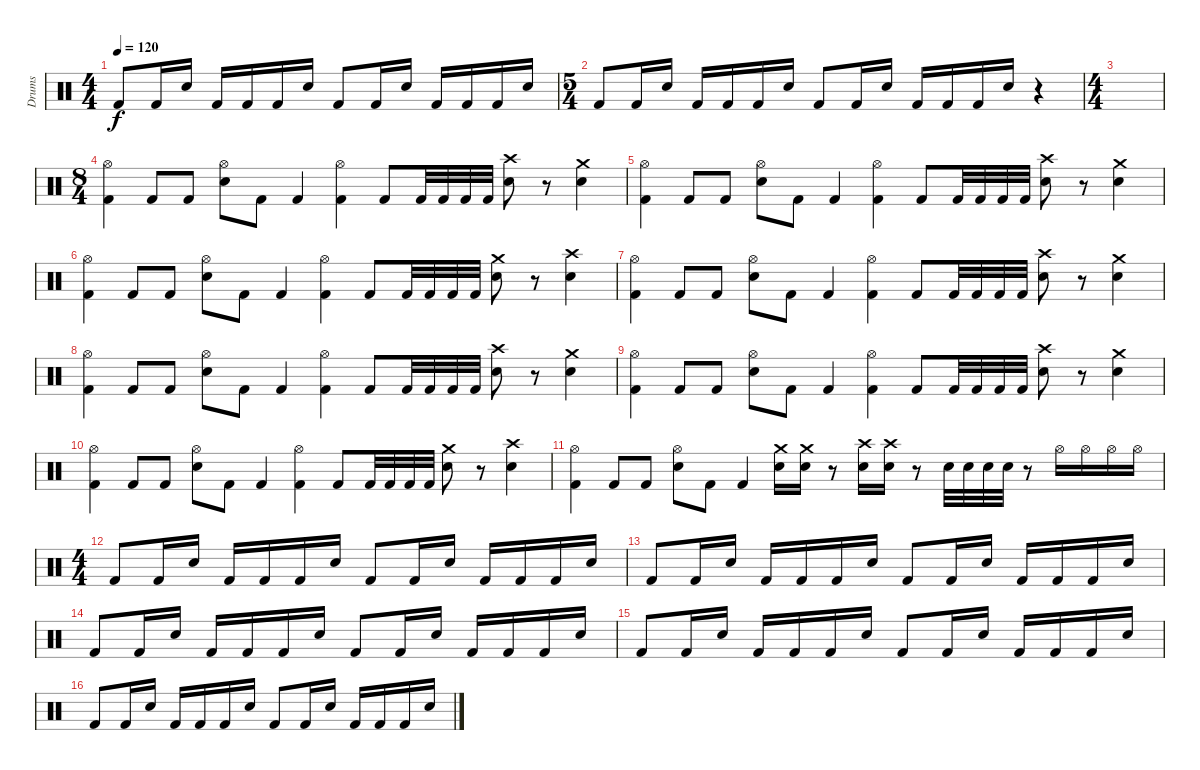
\track ("Drums" "Drums") {instrument percussion}
\staff {score}
\articulation defaults
\ts (4 4)
\tempo 120
\clef neutral
\ks c "Kick (hit) 2".8{dy f} "Kick (hit) 2".16 "Electric Snare (hit)".16 "Kick (hit) 2".16 "Kick (hit) 2".16 "Kick (hit) 2".16 "Electric Snare (hit)".16 "Kick (hit) 2".8 "Kick (hit) 2".16 "Electric Snare (hit)".16 "Kick (hit) 2".16 "Kick (hit) 2".16 "Kick (hit) 2".16 "Electric Snare (hit)".16
|
\ts (5 4)
"Kick (hit) 2".8 "Kick (hit) 2".16 "Electric Snare (hit)".16 "Kick (hit) 2".16 "Kick (hit) 2".16 "Kick (hit) 2".16 "Electric Snare (hit)".16 "Kick (hit) 2".8 "Kick (hit) 2".16 "Electric Snare (hit)".16 "Kick (hit) 2".16 "Kick (hit) 2".16 "Kick (hit) 2".16 "Electric Snare (hit)".16 r.4 |
\ts (4 4)
|
\ts (8 4)
("Kick (hit) 2" "Hi-Hat (open)").4 "Kick (hit) 2".8 "Kick (hit) 2".8 ("Electric Snare (hit)" "Hi-Hat (open)").8 "Kick (hit) 2".8 "Kick (hit) 2".4 ("Kick (hit) 2" "Hi-Hat (open)").4 "Kick (hit) 2".8 "Kick (hit) 2".32 "Kick (hit) 2".32 "Kick (hit) 2".32 "Kick (hit) 2".32 ("Electric Snare (hit)" "Crash high (hit)").8 r.8 ("Electric Snare (hit)" "Crash medium (hit)").4 |
("Kick (hit) 2" "Hi-Hat (open)").4 "Kick (hit) 2".8 "Kick (hit) 2".8 ("Electric Snare (hit)" "Hi-Hat (open)").8 "Kick (hit) 2".8 "Kick (hit) 2".4 ("Kick (hit) 2" "Hi-Hat (open)").4 "Kick (hit) 2".8 "Kick (hit) 2".32 "Kick (hit) 2".32 "Kick (hit) 2".32 "Kick (hit) 2".32 ("Electric Snare (hit)" "Crash high (hit)").8 r.8 ("Electric Snare (hit)" "Crash medium (hit)").4 |
("Kick (hit) 2" "Hi-Hat (open)").4 "Kick (hit) 2".8 "Kick (hit) 2".8 ("Electric Snare (hit)" "Hi-Hat (open)").8 "Kick (hit) 2".8 "Kick (hit) 2".4 ("Kick (hit) 2" "Hi-Hat (open)").4 "Kick (hit) 2".8 "Kick (hit) 2".32 "Kick (hit) 2".32 "Kick (hit) 2".32 "Kick (hit) 2".32 ("Electric Snare (hit)" "Crash medium (hit)").8 r.8 ("Electric Snare (hit)" "Crash high (hit)").4 |
("Kick (hit) 2" "Hi-Hat (open)").4 "Kick (hit) 2".8 "Kick (hit) 2".8 ("Electric Snare (hit)" "Hi-Hat (open)").8 "Kick (hit) 2".8 "Kick (hit) 2".4 ("Kick (hit) 2" "Hi-Hat (open)").4 "Kick (hit) 2".8 "Kick (hit) 2".32 "Kick (hit) 2".32 "Kick (hit) 2".32 "Kick (hit) 2".32 ("Electric Snare (hit)" "Crash high (hit)").8 r.8 ("Electric Snare (hit)" "Crash medium (hit)").4 |
("Kick (hit) 2" "Hi-Hat (open)").4 "Kick (hit) 2".8 "Kick (hit) 2".8 ("Electric Snare (hit)" "Hi-Hat (open)").8 "Kick (hit) 2".8 "Kick (hit) 2".4 ("Kick (hit) 2" "Hi-Hat (open)").4 "Kick (hit) 2".8 "Kick (hit) 2".32 "Kick (hit) 2".32 "Kick (hit) 2".32 "Kick (hit) 2".32 ("Electric Snare (hit)" "Crash high (hit)").8 r.8 ("Electric Snare (hit)" "Crash medium (hit)").4 |
("Kick (hit) 2" "Hi-Hat (open)").4 "Kick (hit) 2".8 "Kick (hit) 2".8 ("Electric Snare (hit)" "Hi-Hat (open)").8 "Kick (hit) 2".8 "Kick (hit) 2".4 ("Kick (hit) 2" "Hi-Hat (open)").4 "Kick (hit) 2".8 "Kick (hit) 2".32 "Kick (hit) 2".32 "Kick (hit) 2".32 "Kick (hit) 2".32 ("Electric Snare (hit)" "Crash high (hit)").8 r.8 ("Electric Snare (hit)" "Crash medium (hit)").4 |
("Kick (hit) 2" "Hi-Hat (open)").4 "Kick (hit) 2".8 "Kick (hit) 2".8 ("Electric Snare (hit)" "Hi-Hat (open)").8 "Kick (hit) 2".8 "Kick (hit) 2".4 ("Kick (hit) 2" "Hi-Hat (open)").4 "Kick (hit) 2".8 "Kick (hit) 2".32 "Kick (hit) 2".32 "Kick (hit) 2".32 "Kick (hit) 2".32 ("Electric Snare (hit)" "Crash medium (hit)").8 r.8 ("Electric Snare (hit)" "Crash high (hit)").4 |
("Kick (hit) 2" "Hi-Hat (open)").4 "Kick (hit) 2".8 "Kick (hit) 2".8 ("Electric Snare (hit)" "Hi-Hat (open)").8 "Kick (hit) 2".8 "Kick (hit) 2".4 ("Electric Snare (hit)" "Crash medium (hit)").16 ("Electric Snare (hit)" "Crash medium (hit)").16 r.8 ("Electric Snare (hit)" "Crash high (hit)").16 ("Electric Snare (hit)" "Crash high (hit)").16 r.8 "Electric Snare (hit)".32 "Electric Snare (hit)".32 "Electric Snare (hit)".32 "Electric Snare (hit)".32 r.8 "Hi-Hat (open)".16 "Hi-Hat (open)".16 "Hi-Hat (open)".16 "Hi-Hat (open)".16 |
\ts (4 4)
"Kick (hit) 2".8 "Kick (hit) 2".16 "Electric Snare (hit)".16 "Kick (hit) 2".16 "Kick (hit) 2".16 "Kick (hit) 2".16 "Electric Snare (hit)".16 "Kick (hit) 2".8 "Kick (hit) 2".16 "Electric Snare (hit)".16 "Kick (hit) 2".16 "Kick (hit) 2".16 "Kick (hit) 2".16 "Electric Snare (hit)".16 |
"Kick (hit) 2".8 "Kick (hit) 2".16 "Electric Snare (hit)".16 "Kick (hit) 2".16 "Kick (hit) 2".16 "Kick (hit) 2".16 "Electric Snare (hit)".16 "Kick (hit) 2".8 "Kick (hit) 2".16 "Electric Snare (hit)".16 "Kick (hit) 2".16 "Kick (hit) 2".16 "Kick (hit) 2".16 "Electric Snare (hit)".16 |
"Kick (hit) 2".8 "Kick (hit) 2".16 "Electric Snare (hit)".16 "Kick (hit) 2".16 "Kick (hit) 2".16 "Kick (hit) 2".16 "Electric Snare (hit)".16 "Kick (hit) 2".8 "Kick (hit) 2".16 "Electric Snare (hit)".16 "Kick (hit) 2".16 "Kick (hit) 2".16 "Kick (hit) 2".16 "Electric Snare (hit)".16 |
"Kick (hit) 2".8 "Kick (hit) 2".16 "Electric Snare (hit)".16 "Kick (hit) 2".16 "Kick (hit) 2".16 "Kick (hit) 2".16 "Electric Snare (hit)".16 "Kick (hit) 2".8 "Kick (hit) 2".16 "Electric Snare (hit)".16 "Kick (hit) 2".16 "Kick (hit) 2".16 "Kick (hit) 2".16 "Electric Snare (hit)".16 |
"Kick (hit) 2".8 "Kick (hit) 2".16 "Electric Snare (hit)".16 "Kick (hit) 2".16 "Kick (hit) 2".16 "Kick (hit) 2".16 "Electric Snare (hit)".16 "Kick (hit) 2".8 "Kick (hit) 2".16 "Electric Snare (hit)".16 "Kick (hit) 2".16 "Kick (hit) 2".16 "Kick (hit) 2".16 "Electric Snare (hit)".16
